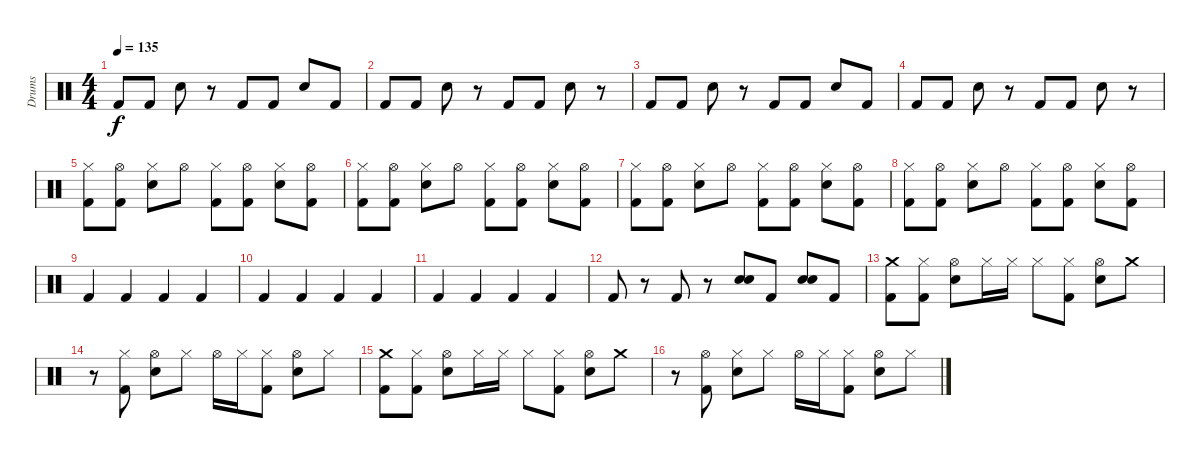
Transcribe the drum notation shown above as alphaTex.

\track ("Drums" "Drums") {instrument percussion}
\staff {score}
\articulation defaults
\ts (4 4)
\tempo 135
\clef neutral
\ks c "Kick (hit) 2".8{dy f} "Kick (hit) 2".8 "Hand Clap (hit)".8
r.8 "Kick (hit) 2".8 "Kick (hit) 2".8 "Hand Clap (hit)".8 "Kick (hit) 2".8 |
"Kick (hit) 2".8 "Kick (hit) 2".8 "Hand Clap (hit)".8 r.8 "Kick (hit) 2".8 "Kick (hit) 2".8 "Hand Clap (hit)".8 r.8 |
"Kick (hit) 2".8 "Kick (hit) 2".8 "Hand Clap (hit)".8 r.8 "Kick (hit) 2".8 "Kick (hit) 2".8 "Hand Clap (hit)".8 "Kick (hit) 2".8 |
"Kick (hit) 2".8 "Kick (hit) 2".8 "Hand Clap (hit)".8 r.8 "Kick (hit) 2".8 "Kick (hit) 2".8 "Hand Clap (hit)".8 r.8 |
("Hi-Hat (closed)" "Kick (hit) 2").8 ("Hi-Hat (open)" "Kick (hit) 2").8 ("Hi-Hat (closed)" "Electric Snare (hit)").8 "Hi-Hat (open)".8 ("Hi-Hat (closed)" "Kick (hit) 2").8 ("Hi-Hat (open)" "Kick (hit) 2").8 ("Hi-Hat (closed)" "Electric Snare (hit)").8 ("Hi-Hat (open)" "Kick (hit) 2").8 |
("Hi-Hat (closed)" "Kick (hit) 2").8 ("Hi-Hat (open)" "Kick (hit) 2").8 ("Hi-Hat (closed)" "Electric Snare (hit)").8 "Hi-Hat (open)".8 ("Hi-Hat (closed)" "Kick (hit) 2").8 ("Hi-Hat (open)" "Kick (hit) 2").8 ("Hi-Hat (closed)" "Electric Snare (hit)").8 ("Hi-Hat (open)" "Kick (hit) 2").8 |
("Hi-Hat (closed)" "Kick (hit) 2").8 ("Hi-Hat (open)" "Kick (hit) 2").8 ("Hi-Hat (closed)" "Electric Snare (hit)").8 "Hi-Hat (open)".8 ("Hi-Hat (closed)" "Kick (hit) 2").8 ("Hi-Hat (open)" "Kick (hit) 2").8 ("Hi-Hat (closed)" "Electric Snare (hit)").8 ("Hi-Hat (open)" "Kick (hit) 2").8 |
("Hi-Hat (closed)" "Kick (hit) 2").8 ("Hi-Hat (open)" "Kick (hit) 2").8 ("Hi-Hat (closed)" "Electric Snare (hit)").8 "Hi-Hat (open)".8 ("Hi-Hat (closed)" "Kick (hit) 2").8 ("Hi-Hat (open)" "Kick (hit) 2").8 ("Hi-Hat (closed)" "Electric Snare (hit)").8 ("Hi-Hat (open)" "Kick (hit) 2").8 |
"Kick (hit) 2".4 "Kick (hit) 2".4 "Kick (hit) 2".4 "Kick (hit) 2".4 |
"Kick (hit) 2".4 "Kick (hit) 2".4 "Kick (hit) 2".4 "Kick (hit) 2".4 |
"Kick (hit) 2".4 "Kick (hit) 2".4 "Kick (hit) 2".4 "Kick (hit) 2".4 |
"Kick (hit) 2".8 r.8 "Kick (hit) 2".8 r.8 ("Electric Snare (hit)" "Electric Snare (hit)").8 "Kick (hit) 2".8 ("Electric Snare (hit)" "Electric Snare (hit)").8 "Kick (hit) 2".8 |
("Crash medium (hit)" "Kick (hit) 2").8 ("Hi-Hat (closed)" "Kick (hit) 2").8 ("Hi-Hat (open)" "Electric Snare (hit)").8 "Hi-Hat (closed)".16 "Hi-Hat (closed)".16 "Hi-Hat (closed)".8 ("Hi-Hat (closed)" "Kick (hit) 2").8 ("Hi-Hat (open)" "Electric Snare (hit)").8 "Crash medium (hit)".8 |
r.8 ("Hi-Hat (closed)" "Kick (hit) 2").8 ("Hi-Hat (open)" "Electric Snare (hit)").8 "Hi-Hat (closed)".8 "Hi-Hat (open)".16 "Hi-Hat (closed)".16 ("Hi-Hat (closed)" "Kick (hit) 2").8 ("Hi-Hat (open)" "Electric Snare (hit)").8 "Hi-Hat (closed)".8 |
("Crash medium (hit)" "Kick (hit) 2").8 ("Hi-Hat (closed)" "Kick (hit) 2").8 ("Hi-Hat (open)" "Electric Snare (hit)").8 "Hi-Hat (closed)".16 "Hi-Hat (closed)".16 "Hi-Hat (closed)".8 ("Hi-Hat (closed)" "Kick (hit) 2").8 ("Hi-Hat (open)" "Electric Snare (hit)").8 "Crash medium (hit)".8 |
r.8 ("Hi-Hat (open)" "Kick (hit) 2").8 ("Hi-Hat (closed)" "Electric Snare (hit)").8 "Hi-Hat (closed)".8 "Hi-Hat (open)".16 "Hi-Hat (closed)".16 ("Hi-Hat (closed)" "Kick (hit) 2").8 ("Hi-Hat (open)" "Electric Snare (hit)").8 "Hi-Hat (closed)".8
